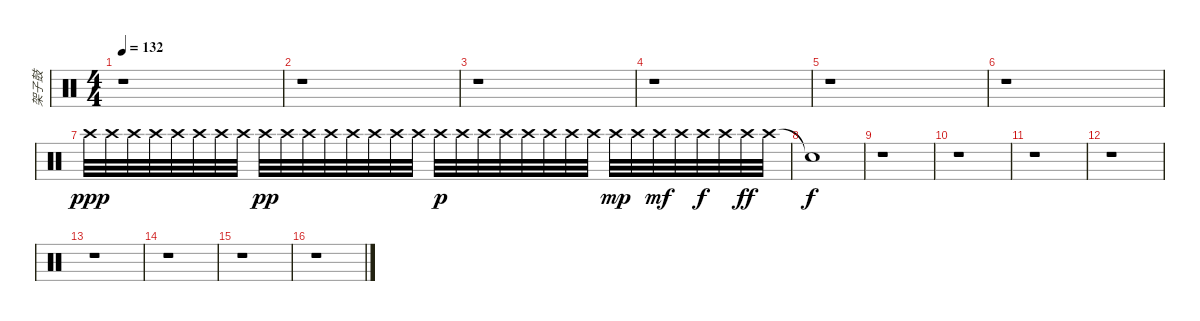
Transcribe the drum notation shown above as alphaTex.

\track ("架子鼓" "架子鼓") {instrument percussion}
\staff {score}
\articulation defaults
\ts (4 4)
\tempo 132
\clef neutral
\ks c
r.1{dy ppp} |
r.1 |
r.1 |
r.1 |
r.1 |
r.1 |
"Crash high (hit)".32 "Crash high (hit)".32 "Crash high (hit)".32 "Crash high (hit)".32 "Crash high (hit)".32 "Crash high (hit)".32 "Crash high (hit)".32 "Crash high (hit)".32 "Crash high (hit)".32{dy pp} "Crash high (hit)".32 "Crash high (hit)".32 "Crash high (hit)".32 "Crash high (hit)".32 "Crash high (hit)".32 "Crash high (hit)".32 "Crash high (hit)".32 "Crash high (hit)".32{dy p} "Crash high (hit)".32 "Crash high (hit)".32 "Crash high (hit)".32 "Crash high (hit)".32 "Crash high (hit)".32 "Crash high (hit)".32 "Crash high (hit)".32 "Crash high (hit)".32{dy mp} "Crash high (hit)".32 "Crash high (hit)".32{dy mf} "Crash high (hit)".32 "Crash high (hit)".32{dy f} "Crash high (hit)".32 "Crash high (hit)".32{dy ff} "Crash high (hit)".32 |
"Snare (hit)"{t}.1{dy f} |
r.1 |
r.1 |
r.1 |
r.1 |
r.1 |
r.1 |
r.1 |
r.1
